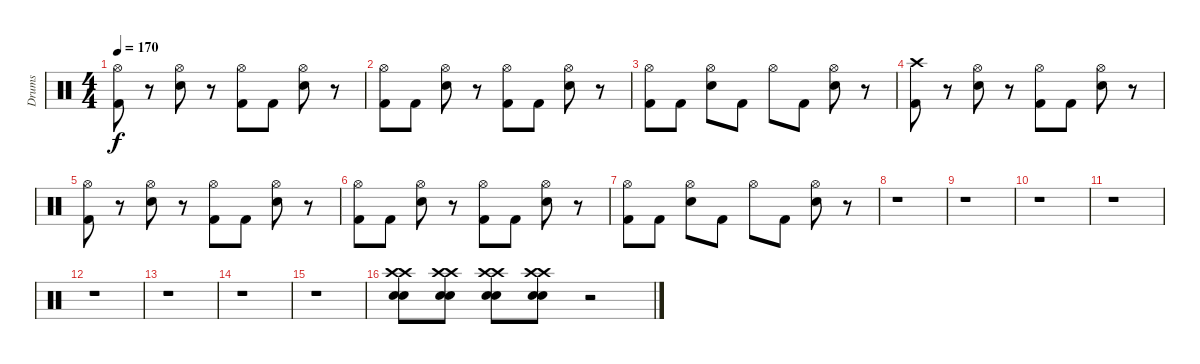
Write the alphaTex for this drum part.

\track ("Drums" "Drums") {instrument percussion}
\staff {score}
\articulation defaults
\ts (4 4)
\tempo 170
\clef neutral
\ks c
("Hi-Hat (open)" "Kick (hit) 2").8{dy f} r.8 ("Hi-Hat (open)" "Electric Snare (hit)").8 r.8 ("Hi-Hat (open)" "Kick (hit) 2").8 "Kick (hit) 2".8 ("Hi-Hat (open)" "Electric Snare (hit)").8 r.8 |
("Hi-Hat (open)" "Kick (hit) 2").8 "Kick (hit) 2".8 ("Hi-Hat (open)" "Electric Snare (hit)").8 r.8 ("Hi-Hat (open)" "Kick (hit) 2").8 "Kick (hit) 2".8 ("Hi-Hat (open)" "Electric Snare (hit)").8 r.8 |
("Hi-Hat (open)" "Kick (hit) 2").8 "Kick (hit) 2".8 ("Hi-Hat (open)" "Electric Snare (hit)").8 "Kick (hit) 2".8 "Hi-Hat (open)".8 "Kick (hit) 2".8 ("Hi-Hat (open)" "Electric Snare (hit)").8 r.8 |
("Crash high (hit)" "Kick (hit) 2").8 r.8 ("Hi-Hat (open)" "Electric Snare (hit)").8 r.8 ("Hi-Hat (open)" "Kick (hit) 2").8 "Kick (hit) 2".8 ("Hi-Hat (open)" "Electric Snare (hit)").8 r.8 |
("Hi-Hat (open)" "Kick (hit) 2").8 r.8 ("Hi-Hat (open)" "Electric Snare (hit)").8 r.8 ("Hi-Hat (open)" "Kick (hit) 2").8 "Kick (hit) 2".8 ("Hi-Hat (open)" "Electric Snare (hit)").8 r.8 |
("Hi-Hat (open)" "Kick (hit) 2").8 "Kick (hit) 2".8 ("Hi-Hat (open)" "Electric Snare (hit)").8 r.8 ("Hi-Hat (open)" "Kick (hit) 2").8 "Kick (hit) 2".8 ("Hi-Hat (open)" "Electric Snare (hit)").8 r.8 |
("Hi-Hat (open)" "Kick (hit) 2").8 "Kick (hit) 2".8 ("Hi-Hat (open)" "Electric Snare (hit)").8 "Kick (hit) 2".8 "Hi-Hat (open)".8 "Kick (hit) 2".8 ("Hi-Hat (open)" "Electric Snare (hit)").8 r.8 |
r.1 |
r.1 |
r.1 |
r.1 |
r.1 |
r.1 |
r.1 |
r.1 |
("Crash high (hit)" "Crash high (hit)" "Electric Snare (hit)" "Electric Snare (hit)").8 ("Crash high (hit)" "Crash high (hit)" "Electric Snare (hit)" "Electric Snare (hit)").8 ("Crash high (hit)" "Crash high (hit)" "Electric Snare (hit)" "Electric Snare (hit)").8 ("Crash high (hit)" "Crash high (hit)" "Electric Snare (hit)" "Electric Snare (hit)").8 r.2
